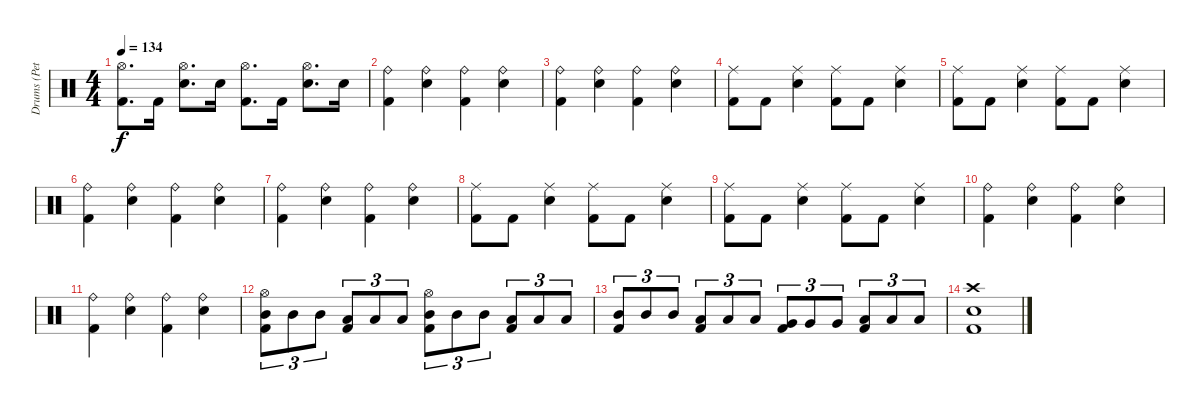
\track ("Drums (Peter Criss)" "Drums (Pet") {instrument percussion}
\staff {score}
\articulation defaults
\ts (4 4)
\tempo 134
\clef neutral
\ks c
("Hi-Hat (open)" "Kick (hit) 2").8{d dy f} "Kick (hit) 2".16 ("Snare (hit) 2" "Hi-Hat (open)").8{d} "Snare (hit) 2".16 ("Hi-Hat (open)" "Kick (hit) 2").8{d} "Kick (hit) 2".16 ("Snare (hit) 2" "Hi-Hat (open)").8{d} "Snare (hit) 2".16 |
("Ride (bell)" "Kick (hit) 2").4 ("Ride (bell)" "Snare (hit) 2").4 ("Ride (bell)" "Kick (hit) 2").4 ("Ride (bell)" "Snare (hit) 2").4 |
("Ride (bell)" "Kick (hit) 2").4 ("Ride (bell)" "Snare (hit) 2").4 ("Ride (bell)" "Kick (hit) 2").4 ("Ride (bell)" "Snare (hit) 2").4 |
("Ride (middle)" "Kick (hit) 2").8 "Kick (hit) 2".8 ("Ride (middle)" "Snare (hit) 2").4 ("Ride (middle)" "Kick (hit) 2").8 "Kick (hit) 2".8 ("Ride (middle)" "Snare (hit) 2").4 |
("Ride (middle)" "Kick (hit) 2").8 "Kick (hit) 2".8 ("Ride (middle)" "Snare (hit) 2").4 ("Ride (middle)" "Kick (hit) 2").8 "Kick (hit) 2".8 ("Ride (middle)" "Snare (hit) 2").4 |
("Ride (bell)" "Kick (hit) 2").4 ("Ride (bell)" "Snare (hit) 2").4 ("Ride (bell)" "Kick (hit) 2").4 ("Ride (bell)" "Snare (hit) 2").4 |
("Ride (bell)" "Kick (hit) 2").4 ("Ride (bell)" "Snare (hit) 2").4 ("Ride (bell)" "Kick (hit) 2").4 ("Ride (bell)" "Snare (hit) 2").4 |
("Ride (middle)" "Kick (hit) 2").8 "Kick (hit) 2".8 ("Ride (middle)" "Snare (hit) 2").4 ("Ride (middle)" "Kick (hit) 2").8 "Kick (hit) 2".8 ("Ride (middle)" "Snare (hit) 2").4 |
("Ride (middle)" "Kick (hit) 2").8 "Kick (hit) 2".8 ("Ride (middle)" "Snare (hit) 2").4 ("Ride (middle)" "Kick (hit) 2").8 "Kick (hit) 2".8 ("Ride (middle)" "Snare (hit) 2").4 |
("Ride (bell)" "Kick (hit) 2").4 ("Ride (bell)" "Snare (hit) 2").4 ("Ride (bell)" "Kick (hit) 2").4 ("Ride (bell)" "Snare (hit) 2").4 |
("Ride (bell)" "Kick (hit) 2").4 ("Ride (bell)" "Snare (hit) 2").4 ("Ride (bell)" "Kick (hit) 2").4 ("Ride (bell)" "Snare (hit) 2").4 |
("Mid Tom (hit)" "Hi-Hat (open)" "Kick (hit) 2").8{tu (3 2)} "Mid Tom (hit)".8{tu (3 2)} "Mid Tom (hit)".8{tu (3 2)} ("Low Tom (hit)" "Kick (hit) 2").8{tu (3 2)} "Low Tom (hit)".8{tu (3 2)} "Low Tom (hit)".8{tu (3 2)} ("Mid Tom (hit)" "Hi-Hat (open)" "Kick (hit) 2").8{tu (3 2)} "Mid Tom (hit)".8{tu (3 2)} "Mid Tom (hit)".8{tu (3 2)} ("Low Tom (hit)" "Kick (hit) 2").8{tu (3 2)} "Low Tom (hit)".8{tu (3 2)} "Low Tom (hit)".8{tu (3 2)} |
("Mid Tom (hit)" "Kick (hit) 2").8{tu (3 2)} "Mid Tom (hit)".8{tu (3 2)} "Mid Tom (hit)".8{tu (3 2)} ("Low Tom (hit)" "Kick (hit) 2").8{tu (3 2)} "Low Tom (hit)".8{tu (3 2)} "Low Tom (hit)".8{tu (3 2)} ("Very Low Tom (hit)" "Kick (hit) 2").8{tu (3 2)} "Very Low Tom (hit)".8{tu (3 2)} "Very Low Tom (hit)".8{tu (3 2)} ("Low Floor Tom (hit)" "Kick (hit) 2").8{tu (3 2)} "Low Floor Tom (hit)".8{tu (3 2)} "Low Floor Tom (hit)".8{tu (3 2)} |
("Snare (hit) 2" "Crash high (hit)" "Kick (hit) 2").1
